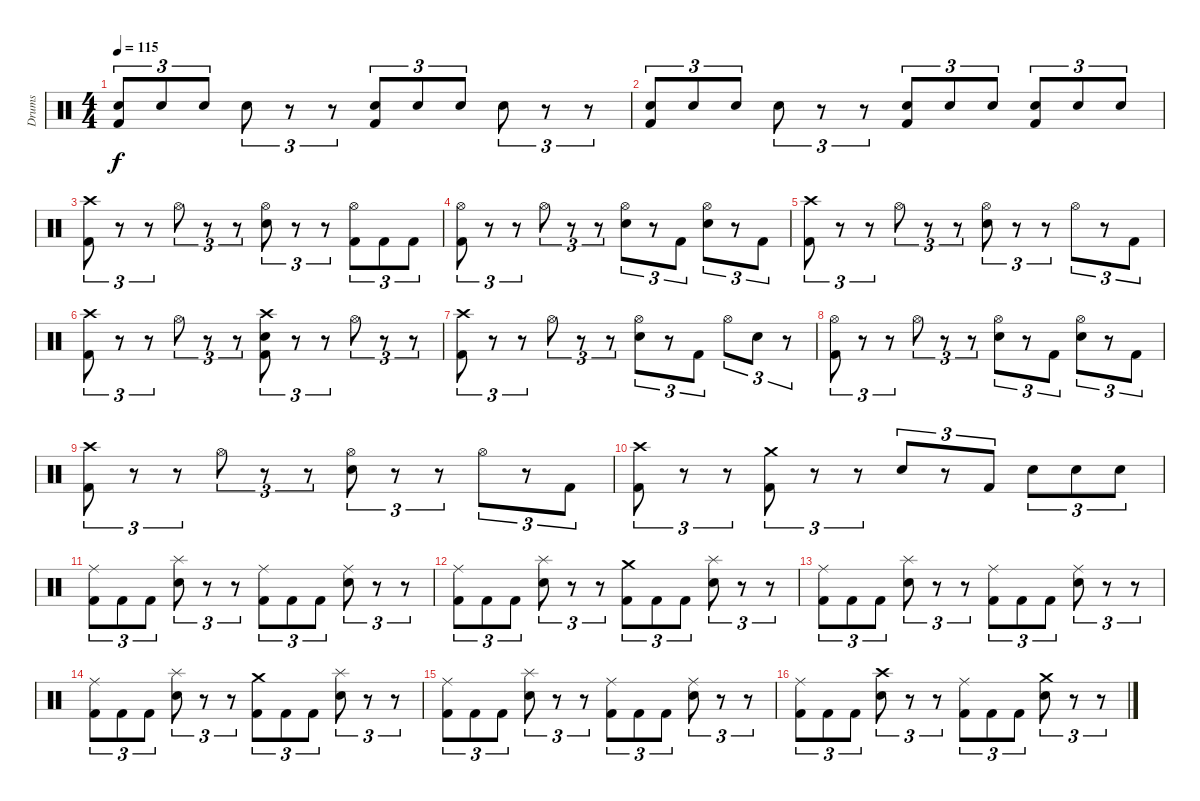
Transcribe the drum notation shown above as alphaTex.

\track ("Drums" "Drums") {instrument percussion}
\staff {score}
\articulation defaults
\ts (4 4)
\tempo 115
\clef neutral
\ks c
("Snare (hit) 2" "Kick (hit) 2").8{tu (3 2) dy f} "Snare (hit) 2".8{tu (3 2)} "Snare (hit) 2".8{tu (3 2)} "Snare (hit) 2".8{tu (3 2)} r.8{tu (3 2)} r.8{tu (3 2)} ("Snare (hit) 2" "Kick (hit) 2").8{tu (3 2)} "Snare (hit) 2".8{tu (3 2)} "Snare (hit) 2".8{tu (3 2)} "Snare (hit) 2".8{tu (3 2)} r.8{tu (3 2)} r.8{tu (3 2)} |
("Snare (hit) 2" "Kick (hit) 2").8{tu (3 2)} "Snare (hit) 2".8{tu (3 2)} "Snare (hit) 2".8{tu (3 2)} "Snare (hit) 2".8{tu (3 2)} r.8{tu (3 2)} r.8{tu (3 2)} ("Snare (hit) 2" "Kick (hit) 2").8{tu (3 2)} "Snare (hit) 2".8{tu (3 2)} "Snare (hit) 2".8{tu (3 2)} ("Snare (hit) 2" "Kick (hit) 2").8{tu (3 2)} "Snare (hit) 2".8{tu (3 2)} "Snare (hit) 2".8{tu (3 2)} |
("Crash high (hit)" "Kick (hit) 2").8{tu (3 2)} r.8{tu (3 2)} r.8{tu (3 2)} "Hi-Hat (open)".8{tu (3 2)} r.8{tu (3 2)} r.8{tu (3 2)} ("Hi-Hat (open)" "Snare (hit) 2").8{tu (3 2)} r.8{tu (3 2)} r.8{tu (3 2)} ("Hi-Hat (open)" "Kick (hit) 2").8{tu (3 2)} "Kick (hit) 2".8{tu (3 2)} "Kick (hit) 2".8{tu (3 2)} |
("Hi-Hat (open)" "Kick (hit) 2").8{tu (3 2)} r.8{tu (3 2)} r.8{tu (3 2)} "Hi-Hat (open)".8{tu (3 2)} r.8{tu (3 2)} r.8{tu (3 2)} ("Hi-Hat (open)" "Snare (hit) 2").8{tu (3 2)} r.8{tu (3 2)} "Kick (hit) 2".8{tu (3 2)} ("Hi-Hat (open)" "Snare (hit) 2").8{tu (3 2)} r.8{tu (3 2)} "Kick (hit) 2".8{tu (3 2)} |
("Crash high (hit)" "Kick (hit) 2").8{tu (3 2)} r.8{tu (3 2)} r.8{tu (3 2)} "Hi-Hat (open)".8{tu (3 2)} r.8{tu (3 2)} r.8{tu (3 2)} ("Hi-Hat (open)" "Snare (hit) 2").8{tu (3 2)} r.8{tu (3 2)} r.8{tu (3 2)} "Hi-Hat (open)".8{tu (3 2)} r.8{tu (3 2)} "Kick (hit) 2".8{tu (3 2)} |
("Crash high (hit)" "Kick (hit) 2").8{tu (3 2)} r.8{tu (3 2)} r.8{tu (3 2)} "Hi-Hat (open)".8{tu (3 2)} r.8{tu (3 2)} r.8{tu (3 2)} ("Crash high (hit)" "Snare (hit) 2" "Kick (hit) 2").8{tu (3 2)} r.8{tu (3 2)} r.8{tu (3 2)} "Hi-Hat (open)".8{tu (3 2)} r.8{tu (3 2)} r.8{tu (3 2)} |
("Crash high (hit)" "Kick (hit) 2").8{tu (3 2)} r.8{tu (3 2)} r.8{tu (3 2)} "Hi-Hat (open)".8{tu (3 2)} r.8{tu (3 2)} r.8{tu (3 2)} ("Hi-Hat (open)" "Snare (hit) 2").8{tu (3 2)} r.8{tu (3 2)} "Kick (hit) 2".8{tu (3 2)} "Hi-Hat (open)".8{tu (3 2)} "Snare (hit) 2".8{tu (3 2)} r.8{tu (3 2)} |
("Hi-Hat (open)" "Kick (hit) 2").8{tu (3 2)} r.8{tu (3 2)} r.8{tu (3 2)} "Hi-Hat (open)".8{tu (3 2)} r.8{tu (3 2)} r.8{tu (3 2)} ("Hi-Hat (open)" "Snare (hit) 2").8{tu (3 2)} r.8{tu (3 2)} "Kick (hit) 2".8{tu (3 2)} ("Hi-Hat (open)" "Snare (hit) 2").8{tu (3 2)} r.8{tu (3 2)} "Kick (hit) 2".8{tu (3 2)} |
("Crash high (hit)" "Kick (hit) 2").8{tu (3 2)} r.8{tu (3 2)} r.8{tu (3 2)} "Hi-Hat (open)".8{tu (3 2)} r.8{tu (3 2)} r.8{tu (3 2)} ("Hi-Hat (open)" "Snare (hit) 2").8{tu (3 2)} r.8{tu (3 2)} r.8{tu (3 2)} "Hi-Hat (open)".8{tu (3 2)} r.8{tu (3 2)} "Kick (hit) 2".8{tu (3 2)} |
("Crash high (hit)" "Kick (hit) 2").8{tu (3 2)} r.8{tu (3 2)} r.8{tu (3 2)} ("Crash medium (hit)" "Kick (hit) 2").8{tu (3 2)} r.8{tu (3 2)} r.8{tu (3 2)} "Snare (hit) 2".8{tu (3 2)} r.8{tu (3 2)} "Kick (hit) 2".8{tu (3 2)} "Snare (hit) 2".8{tu (3 2)} "Snare (hit) 2".8{tu (3 2)} "Snare (hit) 2".8{tu (3 2)} |
("Ride (middle)" "Kick (hit) 2").8{tu (3 2)} "Kick (hit) 2".8{tu (3 2)} "Kick (hit) 2".8{tu (3 2)} ("Splash (hit)" "Snare (hit) 2").8{tu (3 2)} r.8{tu (3 2)} r.8{tu (3 2)} ("Ride (middle)" "Kick (hit) 2").8{tu (3 2)} "Kick (hit) 2".8{tu (3 2)} "Kick (hit) 2".8{tu (3 2)} ("Ride (middle)" "Snare (hit) 2").8{tu (3 2)} r.8{tu (3 2)} r.8{tu (3 2)} |
("Ride (middle)" "Kick (hit) 2").8{tu (3 2)} "Kick (hit) 2".8{tu (3 2)} "Kick (hit) 2".8{tu (3 2)} ("Splash (hit)" "Snare (hit) 2").8{tu (3 2)} r.8{tu (3 2)} r.8{tu (3 2)} ("Crash medium (hit)" "Kick (hit) 2").8{tu (3 2)} "Kick (hit) 2".8{tu (3 2)} "Kick (hit) 2".8{tu (3 2)} ("Splash (hit)" "Snare (hit) 2").8{tu (3 2)} r.8{tu (3 2)} r.8{tu (3 2)} |
("Ride (middle)" "Kick (hit) 2").8{tu (3 2)} "Kick (hit) 2".8{tu (3 2)} "Kick (hit) 2".8{tu (3 2)} ("Splash (hit)" "Snare (hit) 2").8{tu (3 2)} r.8{tu (3 2)} r.8{tu (3 2)} ("Ride (middle)" "Kick (hit) 2").8{tu (3 2)} "Kick (hit) 2".8{tu (3 2)} "Kick (hit) 2".8{tu (3 2)} ("Ride (middle)" "Snare (hit) 2").8{tu (3 2)} r.8{tu (3 2)} r.8{tu (3 2)} |
("Ride (middle)" "Kick (hit) 2").8{tu (3 2)} "Kick (hit) 2".8{tu (3 2)} "Kick (hit) 2".8{tu (3 2)} ("Splash (hit)" "Snare (hit) 2").8{tu (3 2)} r.8{tu (3 2)} r.8{tu (3 2)} ("Crash medium (hit)" "Kick (hit) 2").8{tu (3 2)} "Kick (hit) 2".8{tu (3 2)} "Kick (hit) 2".8{tu (3 2)} ("Splash (hit)" "Snare (hit) 2").8{tu (3 2)} r.8{tu (3 2)} r.8{tu (3 2)} |
("Ride (middle)" "Kick (hit) 2").8{tu (3 2)} "Kick (hit) 2".8{tu (3 2)} "Kick (hit) 2".8{tu (3 2)} ("Splash (hit)" "Snare (hit) 2").8{tu (3 2)} r.8{tu (3 2)} r.8{tu (3 2)} ("Ride (middle)" "Kick (hit) 2").8{tu (3 2)} "Kick (hit) 2".8{tu (3 2)} "Kick (hit) 2".8{tu (3 2)} ("Ride (middle)" "Snare (hit) 2").8{tu (3 2)} r.8{tu (3 2)} r.8{tu (3 2)} |
("Ride (middle)" "Kick (hit) 2").8{tu (3 2)} "Kick (hit) 2".8{tu (3 2)} "Kick (hit) 2".8{tu (3 2)} ("Crash high (hit)" "Snare (hit) 2").8{tu (3 2)} r.8{tu (3 2)} r.8{tu (3 2)} ("Ride (middle)" "Kick (hit) 2").8{tu (3 2)} "Kick (hit) 2".8{tu (3 2)} "Kick (hit) 2".8{tu (3 2)} ("Crash medium (hit)" "Snare (hit) 2").8{tu (3 2)} r.8{tu (3 2)} r.8{tu (3 2)}
